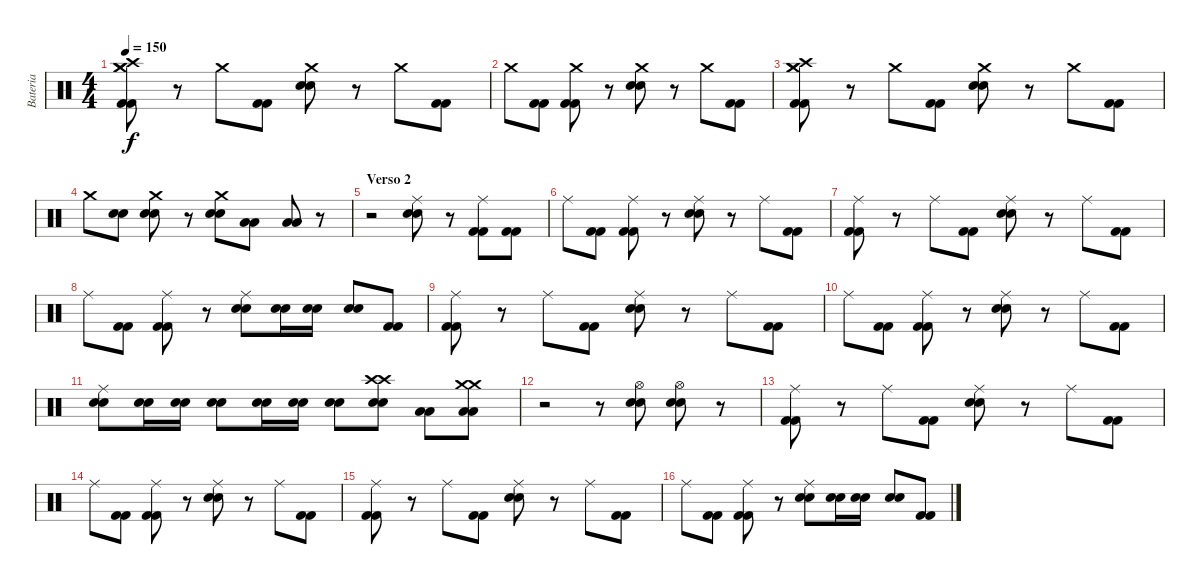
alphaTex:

\track ("Bateria" "Bateria") {instrument percussion}
\staff {score}
\articulation defaults
\ts (4 4)
\tempo 150
\clef neutral
\ks c
("Crash medium (hit)" "Crash high (hit)" "Crash medium (hit)" "Kick (hit) 2" "Kick (hit) 2").8{dy f} r.8 "Crash medium (hit)".8 ("Kick (hit) 2" "Kick (hit) 2").8 ("Crash medium (hit)" "Electric Snare (hit)" "Electric Snare (hit)").8 r.8 "Crash medium (hit)".8 ("Kick (hit) 2" "Kick (hit) 2").8 |
"Crash medium (hit)".8 ("Kick (hit) 2" "Kick (hit) 2").8 ("Crash medium (hit)" "Kick (hit) 2" "Kick (hit) 2").8 r.8 ("Crash medium (hit)" "Electric Snare (hit)" "Electric Snare (hit)").8 r.8 "Crash medium (hit)".8 ("Kick (hit) 2" "Kick (hit) 2").8 |
("Crash medium (hit)" "Crash high (hit)" "Crash medium (hit)" "Kick (hit) 2" "Kick (hit) 2").8 r.8 "Crash medium (hit)".8 ("Kick (hit) 2" "Kick (hit) 2").8 ("Crash medium (hit)" "Electric Snare (hit)" "Electric Snare (hit)").8 r.8 "Crash medium (hit)".8 ("Kick (hit) 2" "Kick (hit) 2").8 |
"Crash medium (hit)".8 ("Electric Snare (hit)" "Electric Snare (hit)").8 ("Crash medium (hit)" "Electric Snare (hit)" "Electric Snare (hit)").8 r.8 ("Crash medium (hit)" "Electric Snare (hit)" "Electric Snare (hit)").8 ("Low Tom (hit)" "Low Tom (hit)").8 ("Low Floor Tom (hit)" "Low Floor Tom (hit)").8 r.8 |
\section ("" "Verso 2")
r.2 ("Ride (middle)" "Electric Snare (hit)" "Electric Snare (hit)").8 r.8 ("Ride (middle)" "Kick (hit) 2" "Kick (hit) 2").8 ("Kick (hit) 2" "Kick (hit) 2").8 |
"Ride (middle)".8 ("Kick (hit) 2" "Kick (hit) 2").8 ("Ride (middle)" "Kick (hit) 2" "Kick (hit) 2").8 r.8 ("Ride (middle)" "Electric Snare (hit)" "Electric Snare (hit)").8 r.8 "Ride (middle)".8 ("Kick (hit) 2" "Kick (hit) 2").8 |
("Ride (middle)" "Kick (hit) 2" "Kick (hit) 2").8 r.8 "Ride (middle)".8 ("Kick (hit) 2" "Kick (hit) 2").8 ("Ride (middle)" "Electric Snare (hit)" "Electric Snare (hit)").8 r.8 "Ride (middle)".8 ("Kick (hit) 2" "Kick (hit) 2").8 |
"Ride (middle)".8 ("Kick (hit) 2" "Kick (hit) 2").8 ("Ride (middle)" "Kick (hit) 2" "Kick (hit) 2").8 r.8 ("Ride (middle)" "Electric Snare (hit)" "Electric Snare (hit)").8 ("Electric Snare (hit)" "Electric Snare (hit)").16 ("Electric Snare (hit)" "Electric Snare (hit)").16 ("Electric Snare (hit)" "Electric Snare (hit)").8 ("Kick (hit) 2" "Kick (hit) 2").8 |
("Ride (middle)" "Kick (hit) 2" "Kick (hit) 2").8 r.8 "Ride (middle)".8 ("Kick (hit) 2" "Kick (hit) 2").8 ("Ride (middle)" "Electric Snare (hit)" "Electric Snare (hit)").8 r.8 "Ride (middle)".8 ("Kick (hit) 2" "Kick (hit) 2").8 |
"Ride (middle)".8 ("Kick (hit) 2" "Kick (hit) 2").8 ("Ride (middle)" "Kick (hit) 2" "Kick (hit) 2").8 r.8 ("Ride (middle)" "Electric Snare (hit)" "Electric Snare (hit)").8 r.8 "Ride (middle)".8 ("Kick (hit) 2" "Kick (hit) 2").8 |
("Ride (middle)" "Electric Snare (hit)" "Electric Snare (hit)").8 ("Electric Snare (hit)" "Electric Snare (hit)").16 ("Electric Snare (hit)" "Electric Snare (hit)").16 ("Electric Snare (hit)" "Electric Snare (hit)").8 ("Electric Snare (hit)" "Electric Snare (hit)").16 ("Electric Snare (hit)" "Electric Snare (hit)").16 ("Electric Snare (hit)" "Electric Snare (hit)").8 ("Crash high (hit)" "Crash high (hit)" "Electric Snare (hit)" "Electric Snare (hit)").8 ("Low Tom (hit)" "Low Tom (hit)").8 ("Crash medium (hit)" "Crash medium (hit)" "Low Floor Tom (hit)" "Low Floor Tom (hit)").8 |
r.2 r.8 ("Hi-Hat (open)" "Electric Snare (hit)" "Electric Snare (hit)").8 ("Hi-Hat (open)" "Electric Snare (hit)" "Electric Snare (hit)").8 r.8 |
("Ride (middle)" "Kick (hit) 2" "Kick (hit) 2").8 r.8 "Ride (middle)".8 ("Kick (hit) 2" "Kick (hit) 2").8 ("Ride (middle)" "Electric Snare (hit)" "Electric Snare (hit)").8 r.8 "Ride (middle)".8 ("Kick (hit) 2" "Kick (hit) 2").8 |
"Ride (middle)".8 ("Kick (hit) 2" "Kick (hit) 2").8 ("Ride (middle)" "Kick (hit) 2" "Kick (hit) 2").8 r.8 ("Ride (middle)" "Electric Snare (hit)" "Electric Snare (hit)").8 r.8 "Ride (middle)".8 ("Kick (hit) 2" "Kick (hit) 2").8 |
("Ride (middle)" "Kick (hit) 2" "Kick (hit) 2").8 r.8 "Ride (middle)".8 ("Kick (hit) 2" "Kick (hit) 2").8 ("Ride (middle)" "Electric Snare (hit)" "Electric Snare (hit)").8 r.8 "Ride (middle)".8 ("Kick (hit) 2" "Kick (hit) 2").8 |
"Ride (middle)".8 ("Kick (hit) 2" "Kick (hit) 2").8 ("Ride (middle)" "Kick (hit) 2" "Kick (hit) 2").8 r.8 ("Ride (middle)" "Electric Snare (hit)" "Electric Snare (hit)").8 ("Electric Snare (hit)" "Electric Snare (hit)").16 ("Electric Snare (hit)" "Electric Snare (hit)").16 ("Electric Snare (hit)" "Electric Snare (hit)").8 ("Kick (hit) 2" "Kick (hit) 2").8
